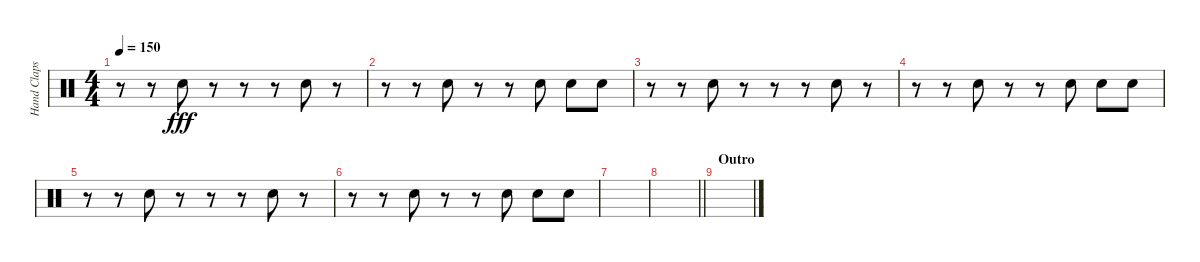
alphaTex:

\track ("Hand Claps" "Hand Claps") {instrument percussion}
\staff {score}
\articulation defaults
\ts (4 4)
\tempo 150
\clef neutral
\ks c
r.8{dy fff} r.8 "Hand Clap (hit)".8 r.8 r.8 r.8 "Hand Clap (hit)".8 r.8 |
r.8 r.8 "Hand Clap (hit)".8 r.8 r.8 "Hand Clap (hit)".8 "Hand Clap (hit)".8 "Hand Clap (hit)".8 |
r.8 r.8 "Hand Clap (hit)".8 r.8 r.8 r.8 "Hand Clap (hit)".8 r.8 |
r.8 r.8 "Hand Clap (hit)".8 r.8 r.8 "Hand Clap (hit)".8 "Hand Clap (hit)".8 "Hand Clap (hit)".8 |
r.8 r.8 "Hand Clap (hit)".8 r.8 r.8 r.8 "Hand Clap (hit)".8 r.8 |
r.8 r.8 "Hand Clap (hit)".8 r.8 r.8 "Hand Clap (hit)".8 "Hand Clap (hit)".8 "Hand Clap (hit)".8 |
|
\barLineRight lightlight
|
\section ("" "Outro")
